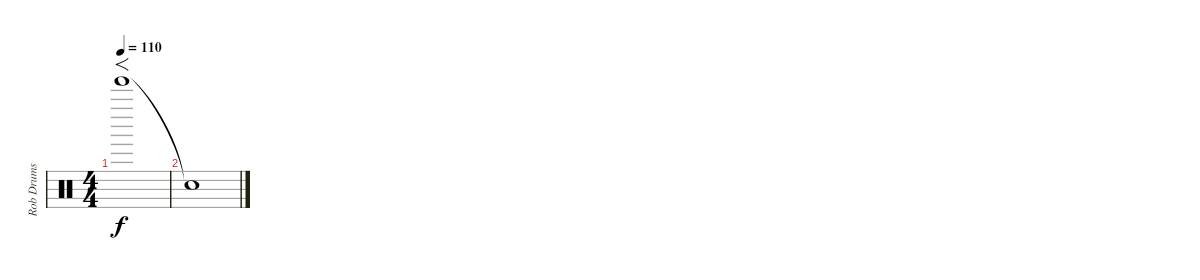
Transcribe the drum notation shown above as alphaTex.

\track ("Rob Drums" "Rob Drums") {instrument percussion}
\staff {score}
\articulation defaults
\ts (4 4)
\tempo 110
\clef neutral
\ks c "Tinkle Bell (hit)".1{f dy f volume 5}
|
"Snare (hit)"{t}.1
